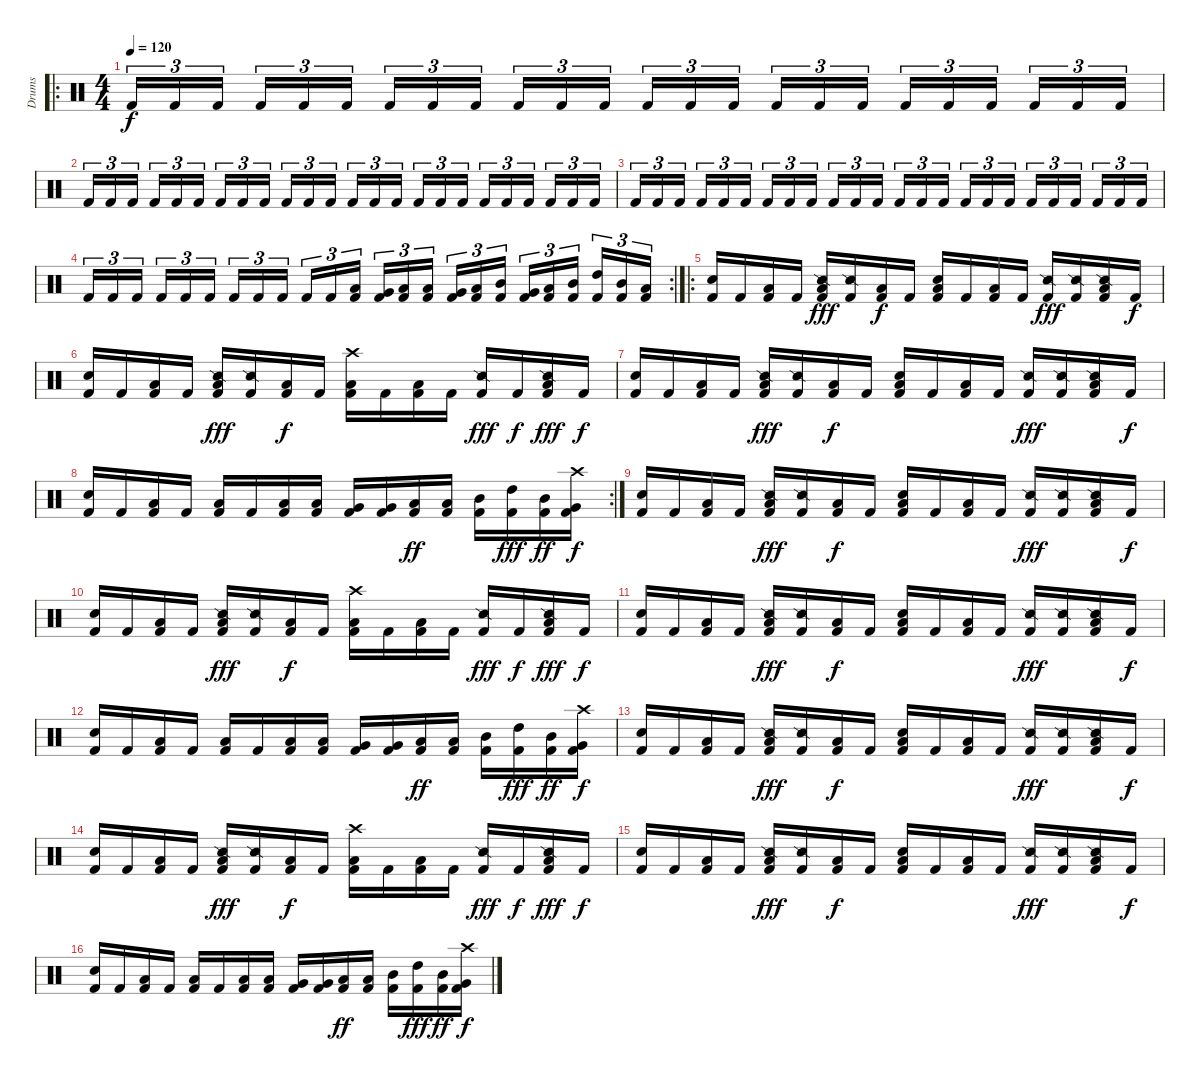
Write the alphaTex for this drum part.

\track ("Drums" "Drums") {instrument percussion}
\staff {score}
\articulation defaults
\ro
\ts (4 4)
\tempo 120
\clef neutral
\ks c "Kick (hit) 2".16{tu (3 2) dy f} "Kick (hit) 2".16{tu (3 2)} "Kick (hit) 2".16{tu (3 2)} "Kick (hit) 2".16{tu (3 2)} "Kick (hit) 2".16{tu (3 2)} "Kick (hit) 2".16{tu (3 2)} "Kick (hit) 2".16{tu (3 2)} "Kick (hit) 2".16{tu (3 2)} "Kick (hit) 2".16{tu (3 2)} "Kick (hit) 2".16{tu (3 2)} "Kick (hit) 2".16{tu (3 2)} "Kick (hit) 2".16{tu (3 2)} "Kick (hit) 2".16{tu (3 2)} "Kick (hit) 2".16{tu (3 2)} "Kick (hit) 2".16{tu (3 2)} "Kick (hit) 2".16{tu (3 2)} "Kick (hit) 2".16{tu (3 2)} "Kick (hit) 2".16{tu (3 2)} "Kick (hit) 2".16{tu (3 2)} "Kick (hit) 2".16{tu (3 2)} "Kick (hit) 2".16{tu (3 2)} "Kick (hit) 2".16{tu (3 2)} "Kick (hit) 2".16{tu (3 2)} "Kick (hit) 2".16{tu (3 2)}
|
"Kick (hit) 2".16{tu (3 2)} "Kick (hit) 2".16{tu (3 2)} "Kick (hit) 2".16{tu (3 2)} "Kick (hit) 2".16{tu (3 2)} "Kick (hit) 2".16{tu (3 2)} "Kick (hit) 2".16{tu (3 2)} "Kick (hit) 2".16{tu (3 2)} "Kick (hit) 2".16{tu (3 2)} "Kick (hit) 2".16{tu (3 2)} "Kick (hit) 2".16{tu (3 2)} "Kick (hit) 2".16{tu (3 2)} "Kick (hit) 2".16{tu (3 2)} "Kick (hit) 2".16{tu (3 2)} "Kick (hit) 2".16{tu (3 2)} "Kick (hit) 2".16{tu (3 2)} "Kick (hit) 2".16{tu (3 2)} "Kick (hit) 2".16{tu (3 2)} "Kick (hit) 2".16{tu (3 2)} "Kick (hit) 2".16{tu (3 2)} "Kick (hit) 2".16{tu (3 2)} "Kick (hit) 2".16{tu (3 2)} "Kick (hit) 2".16{tu (3 2)} "Kick (hit) 2".16{tu (3 2)} "Kick (hit) 2".16{tu (3 2)} |
"Kick (hit) 2".16{tu (3 2)} "Kick (hit) 2".16{tu (3 2)} "Kick (hit) 2".16{tu (3 2)} "Kick (hit) 2".16{tu (3 2)} "Kick (hit) 2".16{tu (3 2)} "Kick (hit) 2".16{tu (3 2)} "Kick (hit) 2".16{tu (3 2)} "Kick (hit) 2".16{tu (3 2)} "Kick (hit) 2".16{tu (3 2)} "Kick (hit) 2".16{tu (3 2)} "Kick (hit) 2".16{tu (3 2)} "Kick (hit) 2".16{tu (3 2)} "Kick (hit) 2".16{tu (3 2)} "Kick (hit) 2".16{tu (3 2)} "Kick (hit) 2".16{tu (3 2)} "Kick (hit) 2".16{tu (3 2)} "Kick (hit) 2".16{tu (3 2)} "Kick (hit) 2".16{tu (3 2)} "Kick (hit) 2".16{tu (3 2)} "Kick (hit) 2".16{tu (3 2)} "Kick (hit) 2".16{tu (3 2)} "Kick (hit) 2".16{tu (3 2)} "Kick (hit) 2".16{tu (3 2)} "Kick (hit) 2".16{tu (3 2)} |
\rc 2 "Kick (hit) 2".16{tu (3 2)} "Kick (hit) 2".16{tu (3 2)} "Kick (hit) 2".16{tu (3 2)} "Kick (hit) 2".16{tu (3 2)} "Kick (hit) 2".16{tu (3 2)} "Kick (hit) 2".16{tu (3 2)} "Kick (hit) 2".16{tu (3 2)} "Kick (hit) 2".16{tu (3 2)} "Kick (hit) 2".16{tu (3 2)} "Kick (hit) 2".16{tu (3 2)} "Kick (hit) 2".16{tu (3 2)}
("Low Floor Tom (hit)" "Kick (hit) 2").16{tu (3 2)} ("Very Low Tom (hit)" "Kick (hit) 2").16{tu (3 2)} ("Low Tom (hit)" "Kick (hit) 2").16{tu (3 2)} ("Low Floor Tom (hit)" "Kick (hit) 2").16{tu (3 2)} ("Very Low Tom (hit)" "Kick (hit) 2").16{tu (3 2)} ("Low Tom (hit)" "Kick (hit) 2").16{tu (3 2)} ("Mid Tom (hit)" "Kick (hit) 2").16{tu (3 2)} ("Very Low Tom (hit)" "Kick (hit) 2").16{tu (3 2)} ("Low Tom (hit)" "Kick (hit) 2").16{tu (3 2)} ("Mid Tom (hit)" "Kick (hit) 2").16{tu (3 2)} ("High Tom (hit)" "Kick (hit) 2").16{tu (3 2)} ("Mid Tom (hit)" "Kick (hit) 2").16{tu (3 2)} ("Low Tom (hit)" "Kick (hit) 2").16{tu (3 2)} |
\ro
("Snare (hit) 2" "Kick (hit) 2").16 "Kick (hit) 2".16 ("Low Floor Tom (hit)" "Kick (hit) 2").16 "Kick (hit) 2".16 ("Snare (side stick) 2" "Low Floor Tom (hit)" "Kick (hit) 2").16{dy fff} ("Snare (side stick) 2" "Kick (hit) 2").16 ("Low Floor Tom (hit)" "Kick (hit) 2").16{dy f} "Kick (hit) 2".16 ("Snare (hit) 2" "Low Floor Tom (hit)" "Kick (hit) 2").16 "Kick (hit) 2".16 ("Low Floor Tom (hit)" "Kick (hit) 2").16 "Kick (hit) 2".16 ("Snare (side stick) 2" "Kick (hit) 2").16{dy fff} ("Snare (side stick) 2" "Kick (hit) 2").16 ("Snare (side stick) 2" "Low Floor Tom (hit)" "Kick (hit) 2").16 "Kick (hit) 2".16{dy f} |
("Snare (hit) 2" "Kick (hit) 2").16 "Kick (hit) 2".16 ("Low Floor Tom (hit)" "Kick (hit) 2").16 "Kick (hit) 2".16 ("Snare (side stick) 2" "Low Floor Tom (hit)" "Kick (hit) 2").16{dy fff} ("Snare (side stick) 2" "Kick (hit) 2").16 ("Low Floor Tom (hit)" "Kick (hit) 2").16{dy f} "Kick (hit) 2".16 ("Crash high (hit)" "Low Floor Tom (hit)" "Kick (hit) 2").16 "Kick (hit) 2".16 ("Low Floor Tom (hit)" "Kick (hit) 2").16 "Kick (hit) 2".16 ("Snare (side stick) 2" "Kick (hit) 2").16{dy fff} "Kick (hit) 2".16{dy f} ("Snare (side stick) 2" "Low Floor Tom (hit)" "Kick (hit) 2").16{dy fff} "Kick (hit) 2".16{dy f} |
("Snare (hit) 2" "Kick (hit) 2").16 "Kick (hit) 2".16 ("Low Floor Tom (hit)" "Kick (hit) 2").16 "Kick (hit) 2".16 ("Snare (side stick) 2" "Low Floor Tom (hit)" "Kick (hit) 2").16{dy fff} ("Snare (side stick) 2" "Kick (hit) 2").16 ("Low Floor Tom (hit)" "Kick (hit) 2").16{dy f} "Kick (hit) 2".16 ("Snare (hit) 2" "Low Floor Tom (hit)" "Kick (hit) 2").16 "Kick (hit) 2".16 ("Low Floor Tom (hit)" "Kick (hit) 2").16 "Kick (hit) 2".16 ("Snare (side stick) 2" "Kick (hit) 2").16{dy fff} ("Snare (side stick) 2" "Kick (hit) 2").16 ("Snare (side stick) 2" "Low Floor Tom (hit)" "Kick (hit) 2").16 "Kick (hit) 2".16{dy f} |
\rc 2
("Snare (hit) 2" "Kick (hit) 2").16 "Kick (hit) 2".16 ("Low Floor Tom (hit)" "Kick (hit) 2").16 "Kick (hit) 2".16 ("Low Floor Tom (hit)" "Kick (hit) 2").16 "Kick (hit) 2".16 ("Low Floor Tom (hit)" "Kick (hit) 2").16 ("Low Floor Tom (hit)" "Kick (hit) 2").16 ("Very Low Tom (hit)" "Kick (hit) 2").16 ("Very Low Tom (hit)" "Kick (hit) 2").16 ("Low Tom (hit)" "Kick (hit) 2").16{dy ff} ("Low Tom (hit)" "Kick (hit) 2").16 ("Mid Tom (hit)" "Kick (hit) 2").16 ("High Tom (hit)" "Kick (hit) 2").16{dy fff} ("Mid Tom (hit)" "Kick (hit) 2").16{dy ff} ("Crash high (hit)" "Very Low Tom (hit)" "Kick (hit) 2").16{dy f} |
("Snare (hit) 2" "Kick (hit) 2").16 "Kick (hit) 2".16 ("Low Floor Tom (hit)" "Kick (hit) 2").16 "Kick (hit) 2".16 ("Snare (side stick) 2" "Low Floor Tom (hit)" "Kick (hit) 2").16{dy fff} ("Snare (side stick) 2" "Kick (hit) 2").16 ("Low Floor Tom (hit)" "Kick (hit) 2").16{dy f} "Kick (hit) 2".16 ("Snare (hit) 2" "Low Floor Tom (hit)" "Kick (hit) 2").16 "Kick (hit) 2".16 ("Low Floor Tom (hit)" "Kick (hit) 2").16 "Kick (hit) 2".16 ("Snare (side stick) 2" "Kick (hit) 2").16{dy fff} ("Snare (side stick) 2" "Kick (hit) 2").16 ("Snare (side stick) 2" "Low Floor Tom (hit)" "Kick (hit) 2").16 "Kick (hit) 2".16{dy f} |
("Snare (hit) 2" "Kick (hit) 2").16 "Kick (hit) 2".16 ("Low Floor Tom (hit)" "Kick (hit) 2").16 "Kick (hit) 2".16 ("Snare (side stick) 2" "Low Floor Tom (hit)" "Kick (hit) 2").16{dy fff} ("Snare (side stick) 2" "Kick (hit) 2").16 ("Low Floor Tom (hit)" "Kick (hit) 2").16{dy f} "Kick (hit) 2".16 ("Crash high (hit)" "Low Floor Tom (hit)" "Kick (hit) 2").16 "Kick (hit) 2".16 ("Low Floor Tom (hit)" "Kick (hit) 2").16 "Kick (hit) 2".16 ("Snare (side stick) 2" "Kick (hit) 2").16{dy fff} "Kick (hit) 2".16{dy f} ("Snare (side stick) 2" "Low Floor Tom (hit)" "Kick (hit) 2").16{dy fff} "Kick (hit) 2".16{dy f} |
("Snare (hit) 2" "Kick (hit) 2").16 "Kick (hit) 2".16 ("Low Floor Tom (hit)" "Kick (hit) 2").16 "Kick (hit) 2".16 ("Snare (side stick) 2" "Low Floor Tom (hit)" "Kick (hit) 2").16{dy fff} ("Snare (side stick) 2" "Kick (hit) 2").16 ("Low Floor Tom (hit)" "Kick (hit) 2").16{dy f} "Kick (hit) 2".16 ("Snare (hit) 2" "Low Floor Tom (hit)" "Kick (hit) 2").16 "Kick (hit) 2".16 ("Low Floor Tom (hit)" "Kick (hit) 2").16 "Kick (hit) 2".16 ("Snare (side stick) 2" "Kick (hit) 2").16{dy fff} ("Snare (side stick) 2" "Kick (hit) 2").16 ("Snare (side stick) 2" "Low Floor Tom (hit)" "Kick (hit) 2").16 "Kick (hit) 2".16{dy f} |
("Snare (hit) 2" "Kick (hit) 2").16 "Kick (hit) 2".16 ("Low Floor Tom (hit)" "Kick (hit) 2").16 "Kick (hit) 2".16 ("Low Floor Tom (hit)" "Kick (hit) 2").16 "Kick (hit) 2".16 ("Low Floor Tom (hit)" "Kick (hit) 2").16 ("Low Floor Tom (hit)" "Kick (hit) 2").16 ("Very Low Tom (hit)" "Kick (hit) 2").16 ("Very Low Tom (hit)" "Kick (hit) 2").16 ("Low Tom (hit)" "Kick (hit) 2").16{dy ff} ("Low Tom (hit)" "Kick (hit) 2").16 ("Mid Tom (hit)" "Kick (hit) 2").16 ("High Tom (hit)" "Kick (hit) 2").16{dy fff} ("Mid Tom (hit)" "Kick (hit) 2").16{dy ff} ("Crash high (hit)" "Very Low Tom (hit)" "Kick (hit) 2").16{dy f} |
("Snare (hit) 2" "Kick (hit) 2").16 "Kick (hit) 2".16 ("Low Floor Tom (hit)" "Kick (hit) 2").16 "Kick (hit) 2".16 ("Snare (side stick) 2" "Low Floor Tom (hit)" "Kick (hit) 2").16{dy fff} ("Snare (side stick) 2" "Kick (hit) 2").16 ("Low Floor Tom (hit)" "Kick (hit) 2").16{dy f} "Kick (hit) 2".16 ("Snare (hit) 2" "Low Floor Tom (hit)" "Kick (hit) 2").16 "Kick (hit) 2".16 ("Low Floor Tom (hit)" "Kick (hit) 2").16 "Kick (hit) 2".16 ("Snare (side stick) 2" "Kick (hit) 2").16{dy fff} ("Snare (side stick) 2" "Kick (hit) 2").16 ("Snare (side stick) 2" "Low Floor Tom (hit)" "Kick (hit) 2").16 "Kick (hit) 2".16{dy f} |
("Snare (hit) 2" "Kick (hit) 2").16 "Kick (hit) 2".16 ("Low Floor Tom (hit)" "Kick (hit) 2").16 "Kick (hit) 2".16 ("Snare (side stick) 2" "Low Floor Tom (hit)" "Kick (hit) 2").16{dy fff} ("Snare (side stick) 2" "Kick (hit) 2").16 ("Low Floor Tom (hit)" "Kick (hit) 2").16{dy f} "Kick (hit) 2".16 ("Crash high (hit)" "Low Floor Tom (hit)" "Kick (hit) 2").16 "Kick (hit) 2".16 ("Low Floor Tom (hit)" "Kick (hit) 2").16 "Kick (hit) 2".16 ("Snare (side stick) 2" "Kick (hit) 2").16{dy fff} "Kick (hit) 2".16{dy f} ("Snare (side stick) 2" "Low Floor Tom (hit)" "Kick (hit) 2").16{dy fff} "Kick (hit) 2".16{dy f} |
("Snare (hit) 2" "Kick (hit) 2").16 "Kick (hit) 2".16 ("Low Floor Tom (hit)" "Kick (hit) 2").16 "Kick (hit) 2".16 ("Snare (side stick) 2" "Low Floor Tom (hit)" "Kick (hit) 2").16{dy fff} ("Snare (side stick) 2" "Kick (hit) 2").16 ("Low Floor Tom (hit)" "Kick (hit) 2").16{dy f} "Kick (hit) 2".16 ("Snare (hit) 2" "Low Floor Tom (hit)" "Kick (hit) 2").16 "Kick (hit) 2".16 ("Low Floor Tom (hit)" "Kick (hit) 2").16 "Kick (hit) 2".16 ("Snare (side stick) 2" "Kick (hit) 2").16{dy fff} ("Snare (side stick) 2" "Kick (hit) 2").16 ("Snare (side stick) 2" "Low Floor Tom (hit)" "Kick (hit) 2").16 "Kick (hit) 2".16{dy f} |
("Snare (hit) 2" "Kick (hit) 2").16 "Kick (hit) 2".16 ("Low Floor Tom (hit)" "Kick (hit) 2").16 "Kick (hit) 2".16 ("Low Floor Tom (hit)" "Kick (hit) 2").16 "Kick (hit) 2".16 ("Low Floor Tom (hit)" "Kick (hit) 2").16 ("Low Floor Tom (hit)" "Kick (hit) 2").16 ("Very Low Tom (hit)" "Kick (hit) 2").16 ("Very Low Tom (hit)" "Kick (hit) 2").16 ("Low Tom (hit)" "Kick (hit) 2").16{dy ff} ("Low Tom (hit)" "Kick (hit) 2").16 ("Mid Tom (hit)" "Kick (hit) 2").16 ("High Tom (hit)" "Kick (hit) 2").16{dy fff} ("Mid Tom (hit)" "Kick (hit) 2").16{dy ff} ("Crash high (hit)" "Very Low Tom (hit)" "Kick (hit) 2").16{dy f}
